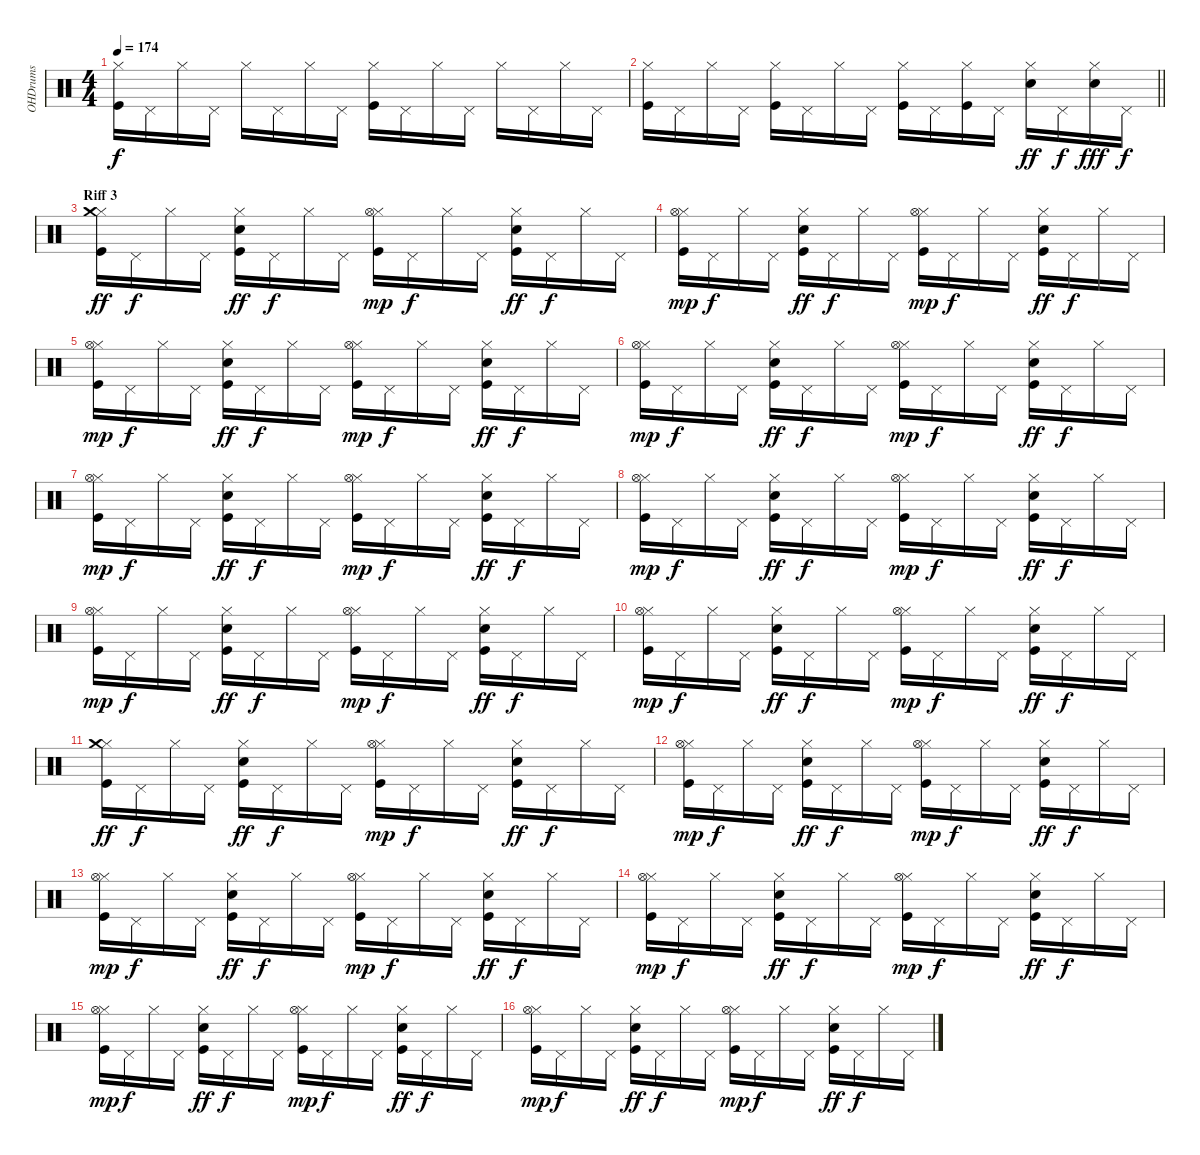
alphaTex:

\track ("OHDrums" "OHDrums") {instrument percussion}
\staff {score}
\articulation defaults
\ts (4 4)
\tempo 174
\clef neutral
\ks c
("Kick (hit)" "Hi-Hat (closed)").16{dy f} "Pedal Hi-Hat (hit)".16 "Hi-Hat (closed)".16 "Pedal Hi-Hat (hit)".16 "Hi-Hat (closed)".16 "Pedal Hi-Hat (hit)".16 "Hi-Hat (closed)".16 "Pedal Hi-Hat (hit)".16 ("Kick (hit)" "Hi-Hat (closed)").16 "Pedal Hi-Hat (hit)".16 "Hi-Hat (closed)".16 "Pedal Hi-Hat (hit)".16 "Hi-Hat (closed)".16 "Pedal Hi-Hat (hit)".16 "Hi-Hat (closed)".16 "Pedal Hi-Hat (hit)".16 |
\barLineRight lightlight
("Kick (hit)" "Hi-Hat (closed)").16 "Pedal Hi-Hat (hit)".16 "Hi-Hat (closed)".16 "Pedal Hi-Hat (hit)".16 ("Kick (hit)" "Hi-Hat (closed)").16 "Pedal Hi-Hat (hit)".16 "Hi-Hat (closed)".16 "Pedal Hi-Hat (hit)".16 ("Kick (hit)" "Hi-Hat (closed)").16 "Pedal Hi-Hat (hit)".16 ("Kick (hit)" "Hi-Hat (closed)").16 "Pedal Hi-Hat (hit)".16 ("Electric Snare (hit)" "Hi-Hat (closed)").16{dy ff} "Pedal Hi-Hat (hit)".16{dy f} ("Electric Snare (hit)" "Hi-Hat (closed)").16{dy fff} "Pedal Hi-Hat (hit)".16{dy f} |
\section ("" "Riff 3")
("Kick (hit)" "Hi-Hat (closed)" "Crash medium (hit)").16{dy ff} "Pedal Hi-Hat (hit)".16{dy f} "Hi-Hat (closed)".16 "Pedal Hi-Hat (hit)".16 ("Kick (hit)" "Electric Snare (hit)" "Hi-Hat (closed)").16{dy ff} "Pedal Hi-Hat (hit)".16{dy f} "Hi-Hat (closed)".16 "Pedal Hi-Hat (hit)".16 ("Kick (hit)" "Hi-Hat (closed)" "Hi-Hat (open)").16{dy mp} "Pedal Hi-Hat (hit)".16{dy f} "Hi-Hat (closed)".16 "Pedal Hi-Hat (hit)".16 ("Kick (hit)" "Electric Snare (hit)" "Hi-Hat (closed)").16{dy ff} "Pedal Hi-Hat (hit)".16{dy f} "Hi-Hat (closed)".16 "Pedal Hi-Hat (hit)".16 |
("Kick (hit)" "Hi-Hat (closed)" "Hi-Hat (open)").16{dy mp} "Pedal Hi-Hat (hit)".16{dy f} "Hi-Hat (closed)".16 "Pedal Hi-Hat (hit)".16 ("Kick (hit)" "Electric Snare (hit)" "Hi-Hat (closed)").16{dy ff} "Pedal Hi-Hat (hit)".16{dy f} "Hi-Hat (closed)".16 "Pedal Hi-Hat (hit)".16 ("Kick (hit)" "Hi-Hat (closed)" "Hi-Hat (open)").16{dy mp} "Pedal Hi-Hat (hit)".16{dy f} "Hi-Hat (closed)".16 "Pedal Hi-Hat (hit)".16 ("Kick (hit)" "Electric Snare (hit)" "Hi-Hat (closed)").16{dy ff} "Pedal Hi-Hat (hit)".16{dy f} "Hi-Hat (closed)".16 "Pedal Hi-Hat (hit)".16 |
("Kick (hit)" "Hi-Hat (closed)" "Hi-Hat (open)").16{dy mp} "Pedal Hi-Hat (hit)".16{dy f} "Hi-Hat (closed)".16 "Pedal Hi-Hat (hit)".16 ("Kick (hit)" "Electric Snare (hit)" "Hi-Hat (closed)").16{dy ff} "Pedal Hi-Hat (hit)".16{dy f} "Hi-Hat (closed)".16 "Pedal Hi-Hat (hit)".16 ("Kick (hit)" "Hi-Hat (closed)" "Hi-Hat (open)").16{dy mp} "Pedal Hi-Hat (hit)".16{dy f} "Hi-Hat (closed)".16 "Pedal Hi-Hat (hit)".16 ("Kick (hit)" "Electric Snare (hit)" "Hi-Hat (closed)").16{dy ff} "Pedal Hi-Hat (hit)".16{dy f} "Hi-Hat (closed)".16 "Pedal Hi-Hat (hit)".16 |
("Kick (hit)" "Hi-Hat (closed)" "Hi-Hat (open)").16{dy mp} "Pedal Hi-Hat (hit)".16{dy f} "Hi-Hat (closed)".16 "Pedal Hi-Hat (hit)".16 ("Kick (hit)" "Electric Snare (hit)" "Hi-Hat (closed)").16{dy ff} "Pedal Hi-Hat (hit)".16{dy f} "Hi-Hat (closed)".16 "Pedal Hi-Hat (hit)".16 ("Kick (hit)" "Hi-Hat (closed)" "Hi-Hat (open)").16{dy mp} "Pedal Hi-Hat (hit)".16{dy f} "Hi-Hat (closed)".16 "Pedal Hi-Hat (hit)".16 ("Kick (hit)" "Electric Snare (hit)" "Hi-Hat (closed)").16{dy ff} "Pedal Hi-Hat (hit)".16{dy f} "Hi-Hat (closed)".16 "Pedal Hi-Hat (hit)".16 |
("Kick (hit)" "Hi-Hat (closed)" "Hi-Hat (open)").16{dy mp} "Pedal Hi-Hat (hit)".16{dy f} "Hi-Hat (closed)".16 "Pedal Hi-Hat (hit)".16 ("Kick (hit)" "Electric Snare (hit)" "Hi-Hat (closed)").16{dy ff} "Pedal Hi-Hat (hit)".16{dy f} "Hi-Hat (closed)".16 "Pedal Hi-Hat (hit)".16 ("Kick (hit)" "Hi-Hat (closed)" "Hi-Hat (open)").16{dy mp} "Pedal Hi-Hat (hit)".16{dy f} "Hi-Hat (closed)".16 "Pedal Hi-Hat (hit)".16 ("Kick (hit)" "Electric Snare (hit)" "Hi-Hat (closed)").16{dy ff} "Pedal Hi-Hat (hit)".16{dy f} "Hi-Hat (closed)".16 "Pedal Hi-Hat (hit)".16 |
("Kick (hit)" "Hi-Hat (closed)" "Hi-Hat (open)").16{dy mp} "Pedal Hi-Hat (hit)".16{dy f} "Hi-Hat (closed)".16 "Pedal Hi-Hat (hit)".16 ("Kick (hit)" "Electric Snare (hit)" "Hi-Hat (closed)").16{dy ff} "Pedal Hi-Hat (hit)".16{dy f} "Hi-Hat (closed)".16 "Pedal Hi-Hat (hit)".16 ("Kick (hit)" "Hi-Hat (closed)" "Hi-Hat (open)").16{dy mp} "Pedal Hi-Hat (hit)".16{dy f} "Hi-Hat (closed)".16 "Pedal Hi-Hat (hit)".16 ("Kick (hit)" "Electric Snare (hit)" "Hi-Hat (closed)").16{dy ff} "Pedal Hi-Hat (hit)".16{dy f} "Hi-Hat (closed)".16 "Pedal Hi-Hat (hit)".16 |
("Kick (hit)" "Hi-Hat (closed)" "Hi-Hat (open)").16{dy mp} "Pedal Hi-Hat (hit)".16{dy f} "Hi-Hat (closed)".16 "Pedal Hi-Hat (hit)".16 ("Kick (hit)" "Electric Snare (hit)" "Hi-Hat (closed)").16{dy ff} "Pedal Hi-Hat (hit)".16{dy f} "Hi-Hat (closed)".16 "Pedal Hi-Hat (hit)".16 ("Kick (hit)" "Hi-Hat (closed)" "Hi-Hat (open)").16{dy mp} "Pedal Hi-Hat (hit)".16{dy f} "Hi-Hat (closed)".16 "Pedal Hi-Hat (hit)".16 ("Kick (hit)" "Electric Snare (hit)" "Hi-Hat (closed)").16{dy ff} "Pedal Hi-Hat (hit)".16{dy f} "Hi-Hat (closed)".16 "Pedal Hi-Hat (hit)".16 |
("Kick (hit)" "Hi-Hat (closed)" "Hi-Hat (open)").16{dy mp} "Pedal Hi-Hat (hit)".16{dy f} "Hi-Hat (closed)".16 "Pedal Hi-Hat (hit)".16 ("Kick (hit)" "Electric Snare (hit)" "Hi-Hat (closed)").16{dy ff} "Pedal Hi-Hat (hit)".16{dy f} "Hi-Hat (closed)".16 "Pedal Hi-Hat (hit)".16 ("Kick (hit)" "Hi-Hat (closed)" "Hi-Hat (open)").16{dy mp} "Pedal Hi-Hat (hit)".16{dy f} "Hi-Hat (closed)".16 "Pedal Hi-Hat (hit)".16 ("Kick (hit)" "Electric Snare (hit)" "Hi-Hat (closed)").16{dy ff} "Pedal Hi-Hat (hit)".16{dy f} "Hi-Hat (closed)".16 "Pedal Hi-Hat (hit)".16 |
("Kick (hit)" "Hi-Hat (closed)" "Crash medium (hit)").16{dy ff} "Pedal Hi-Hat (hit)".16{dy f} "Hi-Hat (closed)".16 "Pedal Hi-Hat (hit)".16 ("Kick (hit)" "Electric Snare (hit)" "Hi-Hat (closed)").16{dy ff} "Pedal Hi-Hat (hit)".16{dy f} "Hi-Hat (closed)".16 "Pedal Hi-Hat (hit)".16 ("Kick (hit)" "Hi-Hat (closed)" "Hi-Hat (open)").16{dy mp} "Pedal Hi-Hat (hit)".16{dy f} "Hi-Hat (closed)".16 "Pedal Hi-Hat (hit)".16 ("Kick (hit)" "Electric Snare (hit)" "Hi-Hat (closed)").16{dy ff} "Pedal Hi-Hat (hit)".16{dy f} "Hi-Hat (closed)".16 "Pedal Hi-Hat (hit)".16 |
("Kick (hit)" "Hi-Hat (closed)" "Hi-Hat (open)").16{dy mp} "Pedal Hi-Hat (hit)".16{dy f} "Hi-Hat (closed)".16 "Pedal Hi-Hat (hit)".16 ("Kick (hit)" "Electric Snare (hit)" "Hi-Hat (closed)").16{dy ff} "Pedal Hi-Hat (hit)".16{dy f} "Hi-Hat (closed)".16 "Pedal Hi-Hat (hit)".16 ("Kick (hit)" "Hi-Hat (closed)" "Hi-Hat (open)").16{dy mp} "Pedal Hi-Hat (hit)".16{dy f} "Hi-Hat (closed)".16 "Pedal Hi-Hat (hit)".16 ("Kick (hit)" "Electric Snare (hit)" "Hi-Hat (closed)").16{dy ff} "Pedal Hi-Hat (hit)".16{dy f} "Hi-Hat (closed)".16 "Pedal Hi-Hat (hit)".16 |
("Kick (hit)" "Hi-Hat (closed)" "Hi-Hat (open)").16{dy mp} "Pedal Hi-Hat (hit)".16{dy f} "Hi-Hat (closed)".16 "Pedal Hi-Hat (hit)".16 ("Kick (hit)" "Electric Snare (hit)" "Hi-Hat (closed)").16{dy ff} "Pedal Hi-Hat (hit)".16{dy f} "Hi-Hat (closed)".16 "Pedal Hi-Hat (hit)".16 ("Kick (hit)" "Hi-Hat (closed)" "Hi-Hat (open)").16{dy mp} "Pedal Hi-Hat (hit)".16{dy f} "Hi-Hat (closed)".16 "Pedal Hi-Hat (hit)".16 ("Kick (hit)" "Electric Snare (hit)" "Hi-Hat (closed)").16{dy ff} "Pedal Hi-Hat (hit)".16{dy f} "Hi-Hat (closed)".16 "Pedal Hi-Hat (hit)".16 |
("Kick (hit)" "Hi-Hat (closed)" "Hi-Hat (open)").16{dy mp} "Pedal Hi-Hat (hit)".16{dy f} "Hi-Hat (closed)".16 "Pedal Hi-Hat (hit)".16 ("Kick (hit)" "Electric Snare (hit)" "Hi-Hat (closed)").16{dy ff} "Pedal Hi-Hat (hit)".16{dy f} "Hi-Hat (closed)".16 "Pedal Hi-Hat (hit)".16 ("Kick (hit)" "Hi-Hat (closed)" "Hi-Hat (open)").16{dy mp} "Pedal Hi-Hat (hit)".16{dy f} "Hi-Hat (closed)".16 "Pedal Hi-Hat (hit)".16 ("Kick (hit)" "Electric Snare (hit)" "Hi-Hat (closed)").16{dy ff} "Pedal Hi-Hat (hit)".16{dy f} "Hi-Hat (closed)".16 "Pedal Hi-Hat (hit)".16 |
("Kick (hit)" "Hi-Hat (closed)" "Hi-Hat (open)").16{dy mp} "Pedal Hi-Hat (hit)".16{dy f} "Hi-Hat (closed)".16 "Pedal Hi-Hat (hit)".16 ("Kick (hit)" "Electric Snare (hit)" "Hi-Hat (closed)").16{dy ff} "Pedal Hi-Hat (hit)".16{dy f} "Hi-Hat (closed)".16 "Pedal Hi-Hat (hit)".16 ("Kick (hit)" "Hi-Hat (closed)" "Hi-Hat (open)").16{dy mp} "Pedal Hi-Hat (hit)".16{dy f} "Hi-Hat (closed)".16 "Pedal Hi-Hat (hit)".16 ("Kick (hit)" "Electric Snare (hit)" "Hi-Hat (closed)").16{dy ff} "Pedal Hi-Hat (hit)".16{dy f} "Hi-Hat (closed)".16 "Pedal Hi-Hat (hit)".16 |
("Kick (hit)" "Hi-Hat (closed)" "Hi-Hat (open)").16{dy mp} "Pedal Hi-Hat (hit)".16{dy f} "Hi-Hat (closed)".16 "Pedal Hi-Hat (hit)".16 ("Kick (hit)" "Electric Snare (hit)" "Hi-Hat (closed)").16{dy ff} "Pedal Hi-Hat (hit)".16{dy f} "Hi-Hat (closed)".16 "Pedal Hi-Hat (hit)".16 ("Kick (hit)" "Hi-Hat (closed)" "Hi-Hat (open)").16{dy mp} "Pedal Hi-Hat (hit)".16{dy f} "Hi-Hat (closed)".16 "Pedal Hi-Hat (hit)".16 ("Kick (hit)" "Electric Snare (hit)" "Hi-Hat (closed)").16{dy ff} "Pedal Hi-Hat (hit)".16{dy f} "Hi-Hat (closed)".16 "Pedal Hi-Hat (hit)".16
